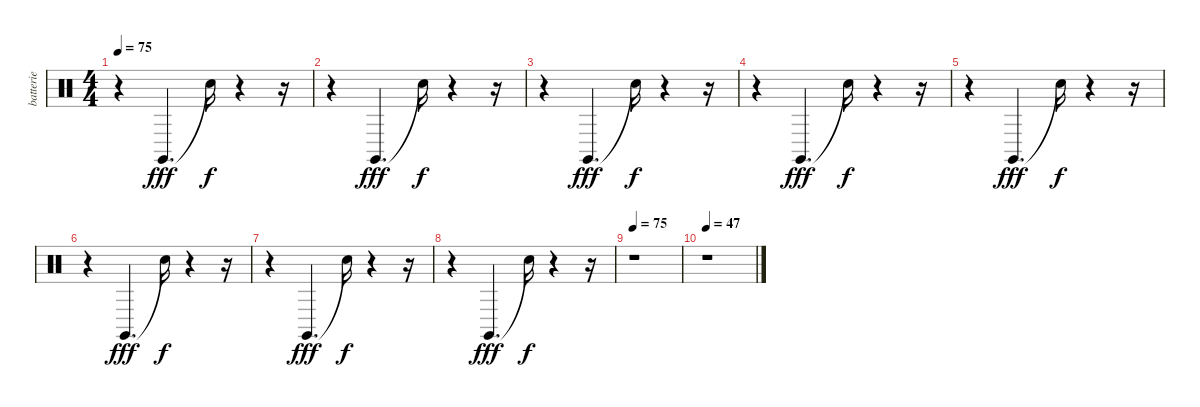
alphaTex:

\track ("batterie" "batterie") {instrument percussion}
\staff {score}
\articulation defaults
\ts (4 4)
\tempo 75
\clef neutral
\ks c
r.4{dy f} "Claves (hit)".4{d dy fff} "Snare (hit)"{t}.16{dy f} r.4 r.16 |
r.4 "Claves (hit)".4{d dy fff} "Snare (hit)"{t}.16{dy f} r.4 r.16 |
r.4 "Claves (hit)".4{d dy fff} "Snare (hit)"{t}.16{dy f} r.4 r.16 |
r.4 "Claves (hit)".4{d dy fff} "Snare (hit)"{t}.16{dy f} r.4 r.16 |
r.4 "Claves (hit)".4{d dy fff} "Snare (hit)"{t}.16{dy f} r.4 r.16 |
r.4 "Claves (hit)".4{d dy fff} "Snare (hit)"{t}.16{dy f} r.4 r.16 |
r.4 "Claves (hit)".4{d dy fff} "Snare (hit)"{t}.16{dy f} r.4 r.16 |
r.4 "Claves (hit)".4{d dy fff} "Snare (hit)"{t}.16{dy f} r.4 r.16 |
\tempo 75
r.1 |
\tempo 47
r.1
